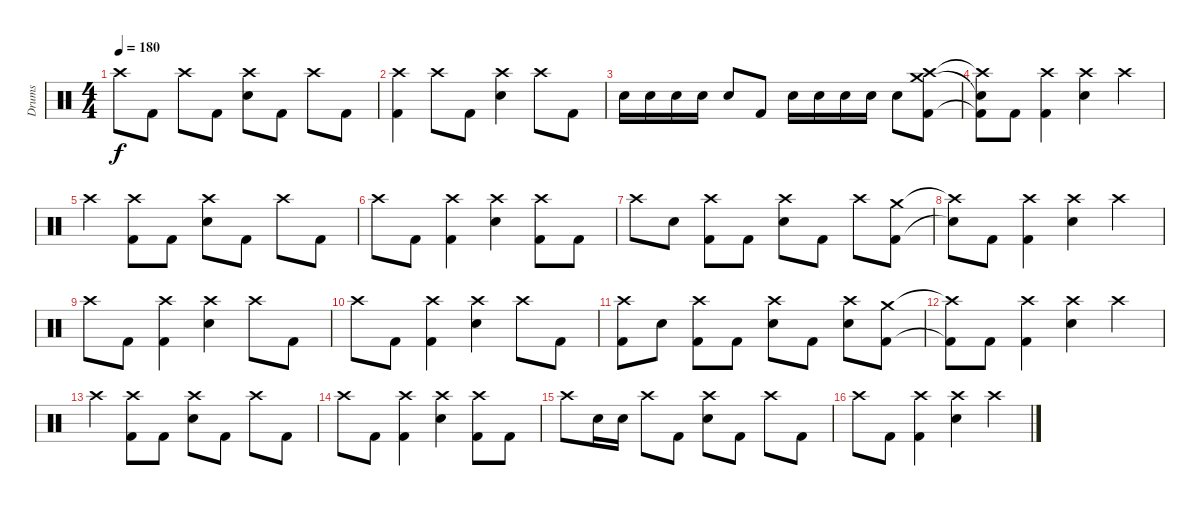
\track ("Drums" "Drums") {instrument percussion}
\staff {score}
\articulation defaults
\ts (4 4)
\tempo 180
\clef neutral
\ks c "Crash high (hit)".8{dy f} "Kick (hit) 2".8 "Crash high (hit)".8 "Kick (hit) 2".8
("Crash high (hit)" "Electric Snare (hit)").8 "Kick (hit) 2".8 "Crash high (hit)".8 "Kick (hit) 2".8 |
("Crash high (hit)" "Kick (hit) 2").4 "Crash high (hit)".8 "Kick (hit) 2".8 ("Crash high (hit)" "Electric Snare (hit)").4 "Crash high (hit)".8 "Kick (hit) 2".8 |
"Electric Snare (hit)".16 "Electric Snare (hit)".16 "Electric Snare (hit)".16 "Electric Snare (hit)".16 "Electric Snare (hit)".8 "Kick (hit) 2".8 "Electric Snare (hit)".16 "Electric Snare (hit)".16 "Electric Snare (hit)".16 "Electric Snare (hit)".16 "Electric Snare (hit)".8 ("Crash high (hit)" "Crash medium (hit)" "Kick (hit) 2").8 |
("Crash high (hit)"{t} "Snare (hit)"{t} "Kick (hit) 2"{t}).8 "Kick (hit) 2".8 ("Crash high (hit)" "Kick (hit) 2").4 ("Crash high (hit)" "Electric Snare (hit)").4 "Crash high (hit)".4 |
"Crash high (hit)".4 ("Crash high (hit)" "Kick (hit) 2").8 "Kick (hit) 2".8 ("Crash high (hit)" "Electric Snare (hit)").8 "Kick (hit) 2".8 "Crash high (hit)".8 "Kick (hit) 2".8 |
"Crash high (hit)".8 "Kick (hit) 2".8 ("Crash high (hit)" "Kick (hit) 2").4 ("Crash high (hit)" "Electric Snare (hit)").4 ("Crash high (hit)" "Kick (hit) 2").8 "Kick (hit) 2".8 |
"Crash high (hit)".8 "Electric Snare (hit)".8 ("Crash high (hit)" "Kick (hit) 2").8 "Kick (hit) 2".8 ("Crash high (hit)" "Electric Snare (hit)").8 "Kick (hit) 2".8 "Crash high (hit)".8 ("Crash medium (hit)" "Kick (hit) 2").8 |
("Crash high (hit)"{t} "Snare (hit)"{t}).8 "Kick (hit) 2".8 ("Crash high (hit)" "Kick (hit) 2").4 ("Crash high (hit)" "Electric Snare (hit)").4 "Crash high (hit)".4 |
"Crash high (hit)".8 "Kick (hit) 2".8 ("Crash high (hit)" "Kick (hit) 2").4 ("Crash high (hit)" "Electric Snare (hit)").4 "Crash high (hit)".8 "Kick (hit) 2".8 |
"Crash high (hit)".8 "Kick (hit) 2".8 ("Crash high (hit)" "Kick (hit) 2").4 ("Crash high (hit)" "Electric Snare (hit)").4 "Crash high (hit)".8 "Kick (hit) 2".8 |
("Crash high (hit)" "Kick (hit) 2").8 "Electric Snare (hit)".8 ("Crash high (hit)" "Kick (hit) 2").8 "Kick (hit) 2".8 ("Crash high (hit)" "Electric Snare (hit)").8 "Kick (hit) 2".8 ("Crash high (hit)" "Electric Snare (hit)").8 ("Crash medium (hit)" "Kick (hit) 2").8 |
("Crash high (hit)"{t} "Kick (hit) 2"{t}).8 "Kick (hit) 2".8 ("Crash high (hit)" "Kick (hit) 2").4 ("Crash high (hit)" "Electric Snare (hit)").4 "Crash high (hit)".4 |
"Crash high (hit)".4 ("Crash high (hit)" "Kick (hit) 2").8 "Kick (hit) 2".8 ("Crash high (hit)" "Electric Snare (hit)").8 "Kick (hit) 2".8 "Crash high (hit)".8 "Kick (hit) 2".8 |
"Crash high (hit)".8 "Kick (hit) 2".8 ("Crash high (hit)" "Kick (hit) 2").4 ("Crash high (hit)" "Electric Snare (hit)").4 ("Crash high (hit)" "Kick (hit) 2").8 "Kick (hit) 2".8 |
"Crash high (hit)".8 "Electric Snare (hit)".16 "Electric Snare (hit)".16 "Crash high (hit)".8 "Kick (hit) 2".8 ("Crash high (hit)" "Electric Snare (hit)").8 "Kick (hit) 2".8 "Crash high (hit)".8 "Kick (hit) 2".8 |
"Crash high (hit)".8 "Kick (hit) 2".8 ("Crash high (hit)" "Kick (hit) 2").4 ("Crash high (hit)" "Electric Snare (hit)").4 "Crash high (hit)".4
